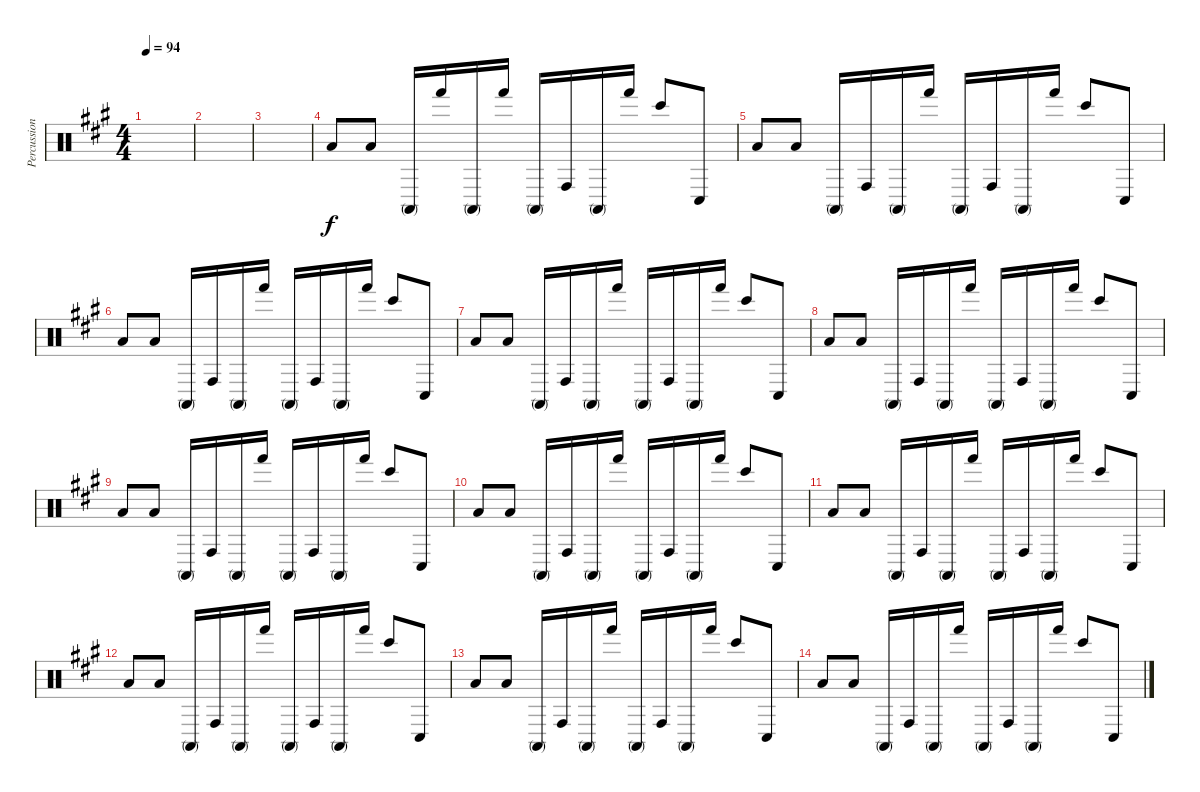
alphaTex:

\track ("Percussion" "Percussion") {instrument percussion}
\staff {score}
\articulation defaults
\ts (4 4)
\tempo 94
\clef neutral
\ks a
|
|
|
"Low Floor Tom (hit)".8 "Low Floor Tom (hit)".8 "Conga high (mute)".16 "Hand (hit)".16 "Conga high (mute)".16 "Hand (hit)".16 "Conga high (mute)".16 "Conga high (hit)".16 "Conga high (mute)".16 "Hand (hit)".16 "Bongo High (hit)".8 "Conga low (hit)".8 |
"Low Floor Tom (hit)".8 "Low Floor Tom (hit)".8 "Conga high (mute)".16 "Conga high (hit)".16 "Conga high (mute)".16 "Hand (hit)".16 "Conga high (mute)".16 "Conga high (hit)".16 "Conga high (mute)".16 "Hand (hit)".16 "Bongo High (hit)".8 "Conga low (hit)".8 |
"Low Floor Tom (hit)".8 "Low Floor Tom (hit)".8 "Conga high (mute)".16 "Conga high (hit)".16 "Conga high (mute)".16 "Hand (hit)".16 "Conga high (mute)".16 "Conga high (hit)".16 "Conga high (mute)".16 "Hand (hit)".16 "Bongo High (hit)".8 "Conga low (hit)".8 |
"Low Floor Tom (hit)".8 "Low Floor Tom (hit)".8 "Conga high (mute)".16 "Conga high (hit)".16 "Conga high (mute)".16 "Hand (hit)".16 "Conga high (mute)".16 "Conga high (hit)".16 "Conga high (mute)".16 "Hand (hit)".16 "Bongo High (hit)".8 "Conga low (hit)".8 |
"Low Floor Tom (hit)".8 "Low Floor Tom (hit)".8 "Conga high (mute)".16 "Conga high (hit)".16 "Conga high (mute)".16 "Hand (hit)".16 "Conga high (mute)".16 "Conga high (hit)".16 "Conga high (mute)".16 "Hand (hit)".16 "Bongo High (hit)".8 "Conga low (hit)".8 |
"Low Floor Tom (hit)".8 "Low Floor Tom (hit)".8 "Conga high (mute)".16 "Conga high (hit)".16 "Conga high (mute)".16 "Hand (hit)".16 "Conga high (mute)".16 "Conga high (hit)".16 "Conga high (mute)".16 "Hand (hit)".16 "Bongo High (hit)".8 "Conga low (hit)".8 |
"Low Floor Tom (hit)".8 "Low Floor Tom (hit)".8 "Conga high (mute)".16 "Conga high (hit)".16 "Conga high (mute)".16 "Hand (hit)".16 "Conga high (mute)".16 "Conga high (hit)".16 "Conga high (mute)".16 "Hand (hit)".16 "Bongo High (hit)".8 "Conga low (hit)".8 |
"Low Floor Tom (hit)".8 "Low Floor Tom (hit)".8 "Conga high (mute)".16 "Conga high (hit)".16 "Conga high (mute)".16 "Hand (hit)".16 "Conga high (mute)".16 "Conga high (hit)".16 "Conga high (mute)".16 "Hand (hit)".16 "Bongo High (hit)".8 "Conga low (hit)".8 |
"Low Floor Tom (hit)".8 "Low Floor Tom (hit)".8 "Conga high (mute)".16 "Conga high (hit)".16 "Conga high (mute)".16 "Hand (hit)".16 "Conga high (mute)".16 "Conga high (hit)".16 "Conga high (mute)".16 "Hand (hit)".16 "Bongo High (hit)".8 "Conga low (hit)".8 |
"Low Floor Tom (hit)".8 "Low Floor Tom (hit)".8 "Conga high (mute)".16 "Conga high (hit)".16 "Conga high (mute)".16 "Hand (hit)".16 "Conga high (mute)".16 "Conga high (hit)".16 "Conga high (mute)".16 "Hand (hit)".16 "Bongo High (hit)".8 "Conga low (hit)".8 |
"Low Floor Tom (hit)".8 "Low Floor Tom (hit)".8 "Conga high (mute)".16 "Conga high (hit)".16 "Conga high (mute)".16 "Hand (hit)".16 "Conga high (mute)".16 "Conga high (hit)".16 "Conga high (mute)".16 "Hand (hit)".16 "Bongo High (hit)".8 "Conga low (hit)".8
